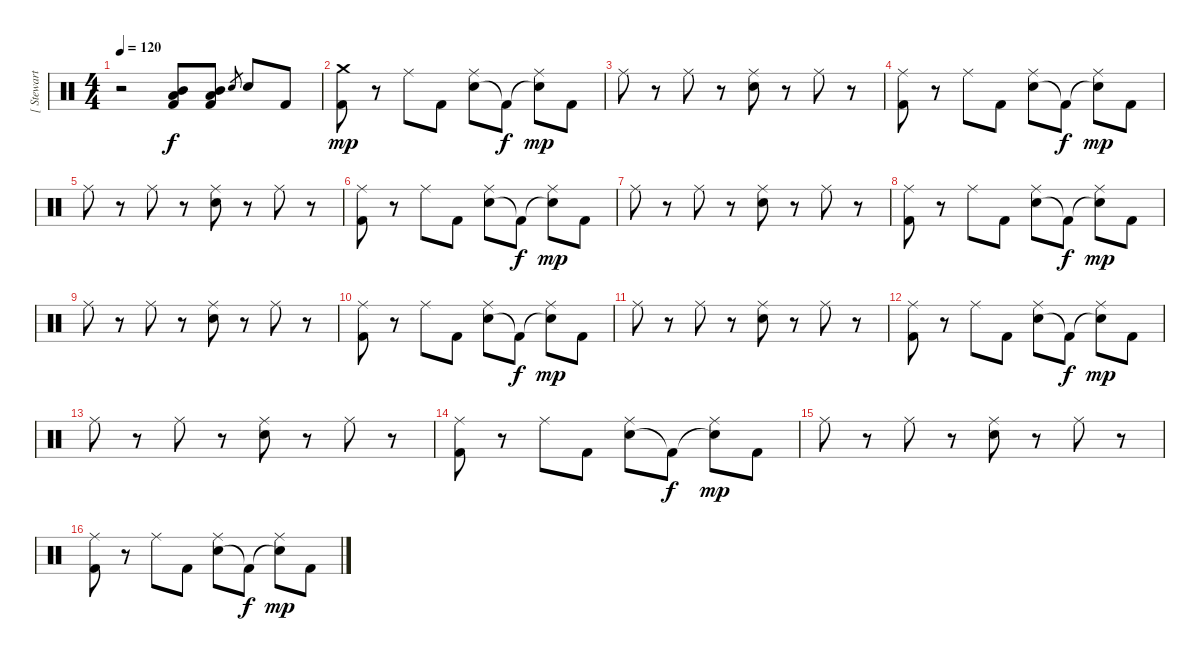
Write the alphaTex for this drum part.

\track ("[ Stewart ] " "[ Stewart ") {instrument percussion}
\staff {score}
\articulation defaults
\ts (4 4)
\tempo 120
\clef neutral
\ks c
r.2{dy f} ("Mid Tom (hit)" "Low Tom (hit)" "Kick (hit) 2").8 ("Mid Tom (hit)" "Low Tom (hit)" "Kick (hit) 2").8 "Electric Snare (hit)".8{gr} "Electric Snare (hit)".8 "Kick (hit) 2".8 |
("Kick (hit) 2" "Crash medium (hit)").8{dy mp} r.8 "Ride (middle)".8 "Kick (hit) 2".8 ("Electric Snare (hit)" "Ride (middle)").8 "Kick (hit) 2"{t}.8{dy f} ("Snare (hit)"{t} "Ride (middle)").8{dy mp} "Kick (hit) 2".8 |
"Ride (middle)".8 r.8 "Ride (middle)".8 r.8 ("Electric Snare (hit)" "Ride (middle)").8 r.8 "Ride (middle)".8 r.8 |
("Kick (hit) 2" "Ride (middle)").8 r.8 "Ride (middle)".8 "Kick (hit) 2".8 ("Electric Snare (hit)" "Ride (middle)").8 "Kick (hit) 2"{t}.8{dy f} ("Snare (hit)"{t} "Ride (middle)").8{dy mp} "Kick (hit) 2".8 |
"Ride (middle)".8 r.8 "Ride (middle)".8 r.8 ("Electric Snare (hit)" "Ride (middle)").8 r.8 "Ride (middle)".8 r.8 |
("Kick (hit) 2" "Ride (middle)").8 r.8 "Ride (middle)".8 "Kick (hit) 2".8 ("Electric Snare (hit)" "Ride (middle)").8 "Kick (hit) 2"{t}.8{dy f} ("Snare (hit)"{t} "Ride (middle)").8{dy mp} "Kick (hit) 2".8 |
"Ride (middle)".8 r.8 "Ride (middle)".8 r.8 ("Electric Snare (hit)" "Ride (middle)").8 r.8 "Ride (middle)".8 r.8 |
("Kick (hit) 2" "Ride (middle)").8 r.8 "Ride (middle)".8 "Kick (hit) 2".8 ("Electric Snare (hit)" "Ride (middle)").8 "Kick (hit) 2"{t}.8{dy f} ("Snare (hit)"{t} "Ride (middle)").8{dy mp} "Kick (hit) 2".8 |
"Ride (middle)".8 r.8 "Ride (middle)".8 r.8 ("Electric Snare (hit)" "Ride (middle)").8 r.8 "Ride (middle)".8 r.8 |
("Kick (hit) 2" "Ride (middle)").8 r.8 "Ride (middle)".8 "Kick (hit) 2".8 ("Electric Snare (hit)" "Ride (middle)").8 "Kick (hit) 2"{t}.8{dy f} ("Snare (hit)"{t} "Ride (middle)").8{dy mp} "Kick (hit) 2".8 |
"Ride (middle)".8 r.8 "Ride (middle)".8 r.8 ("Electric Snare (hit)" "Ride (middle)").8 r.8 "Ride (middle)".8 r.8 |
("Kick (hit) 2" "Ride (middle)").8 r.8 "Ride (middle)".8 "Kick (hit) 2".8 ("Electric Snare (hit)" "Ride (middle)").8 "Kick (hit) 2"{t}.8{dy f} ("Snare (hit)"{t} "Ride (middle)").8{dy mp} "Kick (hit) 2".8 |
"Ride (middle)".8 r.8 "Ride (middle)".8 r.8 ("Electric Snare (hit)" "Ride (middle)").8 r.8 "Ride (middle)".8 r.8 |
("Kick (hit) 2" "Ride (middle)").8 r.8 "Ride (middle)".8 "Kick (hit) 2".8 ("Electric Snare (hit)" "Ride (middle)").8 "Kick (hit) 2"{t}.8{dy f} ("Snare (hit)"{t} "Ride (middle)").8{dy mp} "Kick (hit) 2".8 |
"Ride (middle)".8 r.8 "Ride (middle)".8 r.8 ("Electric Snare (hit)" "Ride (middle)").8 r.8 "Ride (middle)".8 r.8 |
("Kick (hit) 2" "Ride (middle)").8 r.8 "Ride (middle)".8 "Kick (hit) 2".8 ("Electric Snare (hit)" "Ride (middle)").8 "Kick (hit) 2"{t}.8{dy f} ("Snare (hit)"{t} "Ride (middle)").8{dy mp} "Kick (hit) 2".8
